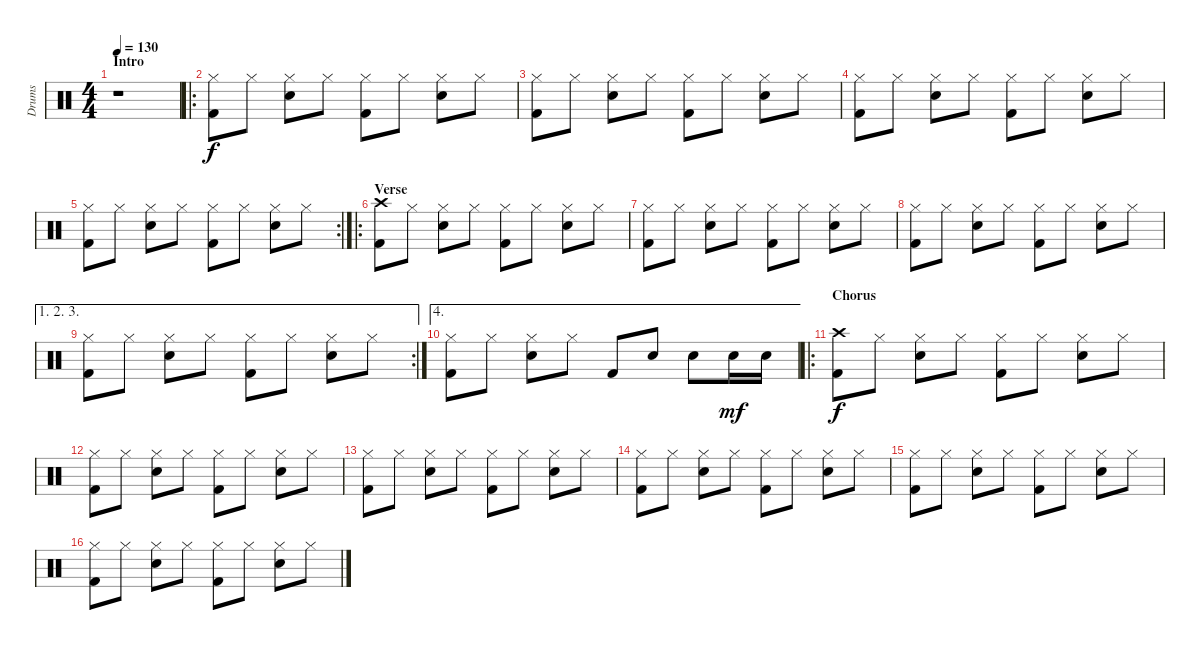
\track ("Drums" "Drums") {instrument percussion}
\staff {score}
\articulation defaults
\ts (4 4)
\section ("" "Intro")
\tempo 130
\clef neutral
\ks c
r.1{dy f} |
\ro
("Hi-Hat (closed)" "Kick (hit) 2").8 "Hi-Hat (closed)".8 ("Hi-Hat (closed)" "Snare (hit) 2").8 "Hi-Hat (closed)".8 ("Hi-Hat (closed)" "Kick (hit) 2").8 "Hi-Hat (closed)".8 ("Hi-Hat (closed)" "Snare (hit) 2").8 "Hi-Hat (closed)".8 |
("Hi-Hat (closed)" "Kick (hit) 2").8 "Hi-Hat (closed)".8 ("Hi-Hat (closed)" "Snare (hit) 2").8 "Hi-Hat (closed)".8 ("Hi-Hat (closed)" "Kick (hit) 2").8 "Hi-Hat (closed)".8 ("Hi-Hat (closed)" "Snare (hit) 2").8 "Hi-Hat (closed)".8 |
("Hi-Hat (closed)" "Kick (hit) 2").8 "Hi-Hat (closed)".8 ("Hi-Hat (closed)" "Snare (hit) 2").8 "Hi-Hat (closed)".8 ("Hi-Hat (closed)" "Kick (hit) 2").8 "Hi-Hat (closed)".8 ("Hi-Hat (closed)" "Snare (hit) 2").8 "Hi-Hat (closed)".8 |
\rc 2
("Hi-Hat (closed)" "Kick (hit) 2").8 "Hi-Hat (closed)".8 ("Hi-Hat (closed)" "Snare (hit) 2").8 "Hi-Hat (closed)".8 ("Hi-Hat (closed)" "Kick (hit) 2").8 "Hi-Hat (closed)".8 ("Hi-Hat (closed)" "Snare (hit) 2").8 "Hi-Hat (closed)".8 |
\ro
\section ("" "Verse")
("Crash high (hit)" "Kick (hit) 2").8 "Hi-Hat (closed)".8 ("Hi-Hat (closed)" "Snare (hit) 2").8 "Hi-Hat (closed)".8 ("Hi-Hat (closed)" "Kick (hit) 2").8 "Hi-Hat (closed)".8 ("Hi-Hat (closed)" "Snare (hit) 2").8 "Hi-Hat (closed)".8 |
("Hi-Hat (closed)" "Kick (hit) 2").8 "Hi-Hat (closed)".8 ("Hi-Hat (closed)" "Snare (hit) 2").8 "Hi-Hat (closed)".8 ("Hi-Hat (closed)" "Kick (hit) 2").8 "Hi-Hat (closed)".8 ("Hi-Hat (closed)" "Snare (hit) 2").8 "Hi-Hat (closed)".8 |
("Hi-Hat (closed)" "Kick (hit) 2").8 "Hi-Hat (closed)".8 ("Hi-Hat (closed)" "Snare (hit) 2").8 "Hi-Hat (closed)".8 ("Hi-Hat (closed)" "Kick (hit) 2").8 "Hi-Hat (closed)".8 ("Hi-Hat (closed)" "Snare (hit) 2").8 "Hi-Hat (closed)".8 |
\ae (1 2 3)
\rc 2
("Hi-Hat (closed)" "Kick (hit) 2").8 "Hi-Hat (closed)".8 ("Hi-Hat (closed)" "Snare (hit) 2").8 "Hi-Hat (closed)".8 ("Hi-Hat (closed)" "Kick (hit) 2").8 "Hi-Hat (closed)".8 ("Hi-Hat (closed)" "Snare (hit) 2").8 "Hi-Hat (closed)".8 |
\ae 4
("Hi-Hat (closed)" "Kick (hit) 2").8 "Hi-Hat (closed)".8 ("Hi-Hat (closed)" "Snare (hit) 2").8 "Hi-Hat (closed)".8 "Kick (hit) 2".8 "Snare (hit) 2".8 "Snare (hit) 2".8 "Snare (hit) 2".16{dy mf} "Snare (hit) 2".16 |
\ro
\section ("" "Chorus")
("Crash high (hit)" "Kick (hit) 2").8{dy f} "Hi-Hat (closed)".8 ("Hi-Hat (closed)" "Snare (hit) 2").8 "Hi-Hat (closed)".8 ("Hi-Hat (closed)" "Kick (hit) 2").8 "Hi-Hat (closed)".8 ("Hi-Hat (closed)" "Snare (hit) 2").8 "Hi-Hat (closed)".8 |
("Hi-Hat (closed)" "Kick (hit) 2").8 "Hi-Hat (closed)".8 ("Hi-Hat (closed)" "Snare (hit) 2").8 "Hi-Hat (closed)".8 ("Hi-Hat (closed)" "Kick (hit) 2").8 "Hi-Hat (closed)".8 ("Hi-Hat (closed)" "Snare (hit) 2").8 "Hi-Hat (closed)".8 |
("Hi-Hat (closed)" "Kick (hit) 2").8 "Hi-Hat (closed)".8 ("Hi-Hat (closed)" "Snare (hit) 2").8 "Hi-Hat (closed)".8 ("Hi-Hat (closed)" "Kick (hit) 2").8 "Hi-Hat (closed)".8 ("Hi-Hat (closed)" "Snare (hit) 2").8 "Hi-Hat (closed)".8 |
("Hi-Hat (closed)" "Kick (hit) 2").8 "Hi-Hat (closed)".8 ("Hi-Hat (closed)" "Snare (hit) 2").8 "Hi-Hat (closed)".8 ("Hi-Hat (closed)" "Kick (hit) 2").8 "Hi-Hat (closed)".8 ("Hi-Hat (closed)" "Snare (hit) 2").8 "Hi-Hat (closed)".8 |
("Hi-Hat (closed)" "Kick (hit) 2").8 "Hi-Hat (closed)".8 ("Hi-Hat (closed)" "Snare (hit) 2").8 "Hi-Hat (closed)".8 ("Hi-Hat (closed)" "Kick (hit) 2").8 "Hi-Hat (closed)".8 ("Hi-Hat (closed)" "Snare (hit) 2").8 "Hi-Hat (closed)".8 |
("Hi-Hat (closed)" "Kick (hit) 2").8 "Hi-Hat (closed)".8 ("Hi-Hat (closed)" "Snare (hit) 2").8 "Hi-Hat (closed)".8 ("Hi-Hat (closed)" "Kick (hit) 2").8 "Hi-Hat (closed)".8 ("Hi-Hat (closed)" "Snare (hit) 2").8 "Hi-Hat (closed)".8
